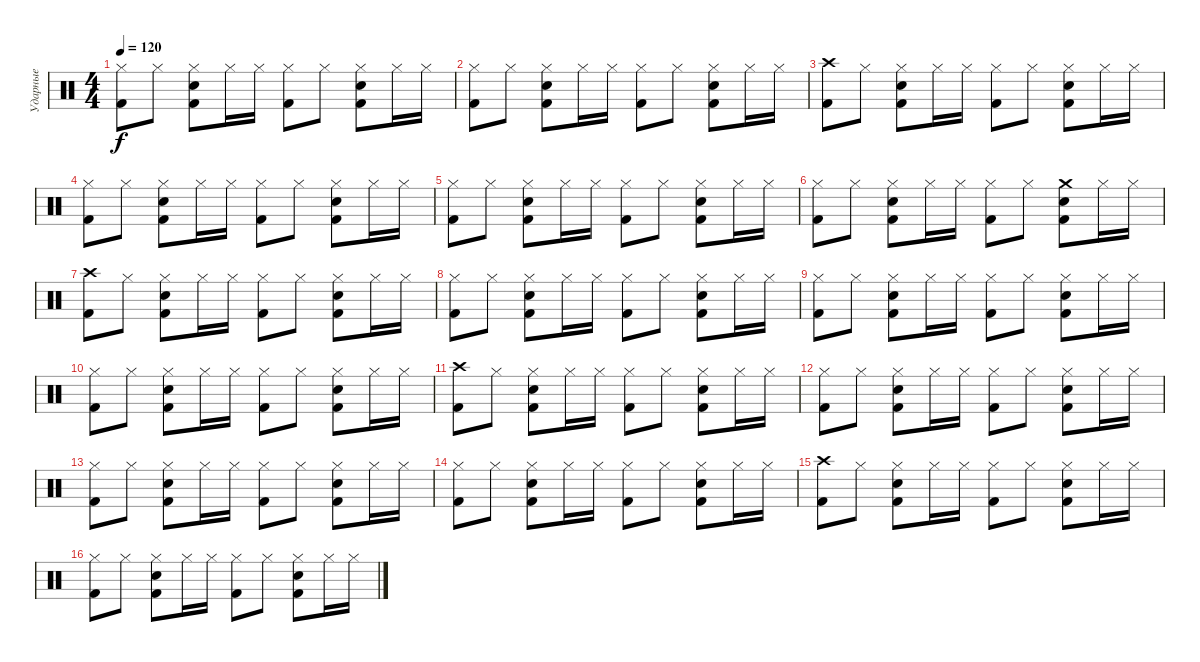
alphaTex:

\track ("Ударные" "Ударные") {instrument percussion}
\staff {score}
\articulation defaults
\ts (4 4)
\tempo 120
\clef neutral
\ks c
("Hi-Hat (closed)" "Kick (hit) 2").8{dy f} "Hi-Hat (closed)".8 ("Hi-Hat (closed)" "Kick (hit) 2" "Electric Snare (hit)").8 "Hi-Hat (closed)".16 "Hi-Hat (closed)".16 ("Hi-Hat (closed)" "Kick (hit) 2").8 "Hi-Hat (closed)".8 ("Hi-Hat (closed)" "Kick (hit) 2" "Electric Snare (hit)").8 "Hi-Hat (closed)".16 "Hi-Hat (closed)".16 |
("Hi-Hat (closed)" "Kick (hit) 2").8 "Hi-Hat (closed)".8 ("Hi-Hat (closed)" "Kick (hit) 2" "Electric Snare (hit)").8 "Hi-Hat (closed)".16 "Hi-Hat (closed)".16 ("Hi-Hat (closed)" "Kick (hit) 2").8 "Hi-Hat (closed)".8 ("Hi-Hat (closed)" "Kick (hit) 2" "Electric Snare (hit)").8 "Hi-Hat (closed)".16 "Hi-Hat (closed)".16 |
("Crash high (hit)" "Kick (hit) 2").8 "Hi-Hat (closed)".8 ("Hi-Hat (closed)" "Kick (hit) 2" "Electric Snare (hit)").8 "Hi-Hat (closed)".16 "Hi-Hat (closed)".16 ("Hi-Hat (closed)" "Kick (hit) 2").8 "Hi-Hat (closed)".8 ("Hi-Hat (closed)" "Kick (hit) 2" "Electric Snare (hit)").8 "Hi-Hat (closed)".16 "Hi-Hat (closed)".16 |
("Hi-Hat (closed)" "Kick (hit) 2").8 "Hi-Hat (closed)".8 ("Hi-Hat (closed)" "Kick (hit) 2" "Electric Snare (hit)").8 "Hi-Hat (closed)".16 "Hi-Hat (closed)".16 ("Hi-Hat (closed)" "Kick (hit) 2").8 "Hi-Hat (closed)".8 ("Hi-Hat (closed)" "Kick (hit) 2" "Electric Snare (hit)").8 "Hi-Hat (closed)".16 "Hi-Hat (closed)".16 |
("Hi-Hat (closed)" "Kick (hit) 2").8 "Hi-Hat (closed)".8 ("Hi-Hat (closed)" "Kick (hit) 2" "Electric Snare (hit)").8 "Hi-Hat (closed)".16 "Hi-Hat (closed)".16 ("Hi-Hat (closed)" "Kick (hit) 2").8 "Hi-Hat (closed)".8 ("Hi-Hat (closed)" "Kick (hit) 2" "Electric Snare (hit)").8 "Hi-Hat (closed)".16 "Hi-Hat (closed)".16 |
("Hi-Hat (closed)" "Kick (hit) 2").8 "Hi-Hat (closed)".8 ("Hi-Hat (closed)" "Kick (hit) 2" "Electric Snare (hit)").8 "Hi-Hat (closed)".16 "Hi-Hat (closed)".16 ("Hi-Hat (closed)" "Kick (hit) 2").8 "Hi-Hat (closed)".8 ("Crash medium (hit)" "Kick (hit) 2" "Electric Snare (hit)").8 "Hi-Hat (closed)".16 "Hi-Hat (closed)".16 |
("Crash high (hit)" "Kick (hit) 2").8 "Hi-Hat (closed)".8 ("Hi-Hat (closed)" "Kick (hit) 2" "Electric Snare (hit)").8 "Hi-Hat (closed)".16 "Hi-Hat (closed)".16 ("Hi-Hat (closed)" "Kick (hit) 2").8 "Hi-Hat (closed)".8 ("Hi-Hat (closed)" "Kick (hit) 2" "Electric Snare (hit)").8 "Hi-Hat (closed)".16 "Hi-Hat (closed)".16 |
("Hi-Hat (closed)" "Kick (hit) 2").8 "Hi-Hat (closed)".8 ("Hi-Hat (closed)" "Kick (hit) 2" "Electric Snare (hit)").8 "Hi-Hat (closed)".16 "Hi-Hat (closed)".16 ("Hi-Hat (closed)" "Kick (hit) 2").8 "Hi-Hat (closed)".8 ("Hi-Hat (closed)" "Kick (hit) 2" "Electric Snare (hit)").8 "Hi-Hat (closed)".16 "Hi-Hat (closed)".16 |
("Hi-Hat (closed)" "Kick (hit) 2").8 "Hi-Hat (closed)".8 ("Hi-Hat (closed)" "Kick (hit) 2" "Electric Snare (hit)").8 "Hi-Hat (closed)".16 "Hi-Hat (closed)".16 ("Hi-Hat (closed)" "Kick (hit) 2").8 "Hi-Hat (closed)".8 ("Hi-Hat (closed)" "Kick (hit) 2" "Electric Snare (hit)").8 "Hi-Hat (closed)".16 "Hi-Hat (closed)".16 |
("Hi-Hat (closed)" "Kick (hit) 2").8 "Hi-Hat (closed)".8 ("Hi-Hat (closed)" "Kick (hit) 2" "Electric Snare (hit)").8 "Hi-Hat (closed)".16 "Hi-Hat (closed)".16 ("Hi-Hat (closed)" "Kick (hit) 2").8 "Hi-Hat (closed)".8 ("Hi-Hat (closed)" "Kick (hit) 2" "Electric Snare (hit)").8 "Hi-Hat (closed)".16 "Hi-Hat (closed)".16 |
("Crash high (hit)" "Kick (hit) 2").8 "Hi-Hat (closed)".8 ("Hi-Hat (closed)" "Kick (hit) 2" "Electric Snare (hit)").8 "Hi-Hat (closed)".16 "Hi-Hat (closed)".16 ("Hi-Hat (closed)" "Kick (hit) 2").8 "Hi-Hat (closed)".8 ("Hi-Hat (closed)" "Kick (hit) 2" "Electric Snare (hit)").8 "Hi-Hat (closed)".16 "Hi-Hat (closed)".16 |
("Hi-Hat (closed)" "Kick (hit) 2").8 "Hi-Hat (closed)".8 ("Hi-Hat (closed)" "Kick (hit) 2" "Electric Snare (hit)").8 "Hi-Hat (closed)".16 "Hi-Hat (closed)".16 ("Hi-Hat (closed)" "Kick (hit) 2").8 "Hi-Hat (closed)".8 ("Hi-Hat (closed)" "Kick (hit) 2" "Electric Snare (hit)").8 "Hi-Hat (closed)".16 "Hi-Hat (closed)".16 |
("Hi-Hat (closed)" "Kick (hit) 2").8 "Hi-Hat (closed)".8 ("Hi-Hat (closed)" "Kick (hit) 2" "Electric Snare (hit)").8 "Hi-Hat (closed)".16 "Hi-Hat (closed)".16 ("Hi-Hat (closed)" "Kick (hit) 2").8 "Hi-Hat (closed)".8 ("Hi-Hat (closed)" "Kick (hit) 2" "Electric Snare (hit)").8 "Hi-Hat (closed)".16 "Hi-Hat (closed)".16 |
("Hi-Hat (closed)" "Kick (hit) 2").8 "Hi-Hat (closed)".8 ("Hi-Hat (closed)" "Kick (hit) 2" "Electric Snare (hit)").8 "Hi-Hat (closed)".16 "Hi-Hat (closed)".16 ("Hi-Hat (closed)" "Kick (hit) 2").8 "Hi-Hat (closed)".8 ("Hi-Hat (closed)" "Kick (hit) 2" "Electric Snare (hit)").8 "Hi-Hat (closed)".16 "Hi-Hat (closed)".16 |
("Crash high (hit)" "Kick (hit) 2").8 "Hi-Hat (closed)".8 ("Hi-Hat (closed)" "Kick (hit) 2" "Electric Snare (hit)").8 "Hi-Hat (closed)".16 "Hi-Hat (closed)".16 ("Hi-Hat (closed)" "Kick (hit) 2").8 "Hi-Hat (closed)".8 ("Hi-Hat (closed)" "Kick (hit) 2" "Electric Snare (hit)").8 "Hi-Hat (closed)".16 "Hi-Hat (closed)".16 |
("Hi-Hat (closed)" "Kick (hit) 2").8 "Hi-Hat (closed)".8 ("Hi-Hat (closed)" "Kick (hit) 2" "Electric Snare (hit)").8 "Hi-Hat (closed)".16 "Hi-Hat (closed)".16 ("Hi-Hat (closed)" "Kick (hit) 2").8 "Hi-Hat (closed)".8 ("Hi-Hat (closed)" "Kick (hit) 2" "Electric Snare (hit)").8 "Hi-Hat (closed)".16 "Hi-Hat (closed)".16
